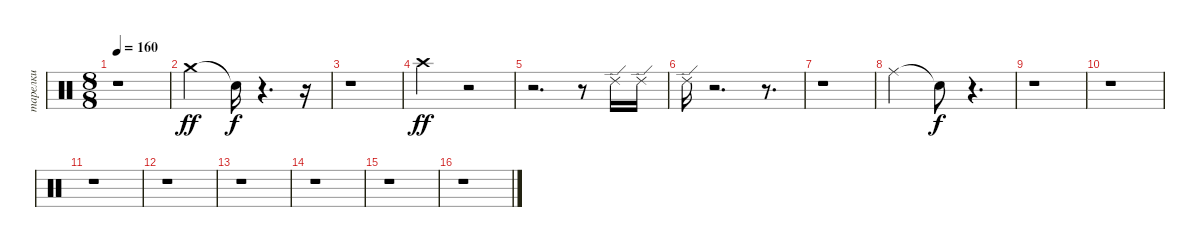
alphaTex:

\track ("тарелки" "тарелки") {instrument percussion}
\staff {score}
\articulation defaults
\ts (8 8)
\tempo 160
\clef neutral
\ks c
r.1{dy ff} |
"Crash medium (hit)".2 "Snare (hit)"{t}.16{dy f} r.4{d} r.16 |
r.1 |
"Crash high (hit)".2{dy ff} r.2 |
r.2{d} r.8 "Ride (edge) 2".16 "Ride (edge) 2".16 |
"Ride (edge) 2".16 r.2{d} r.8{d} |
r.1 |
"Ride (middle)".2 "Snare (hit)"{t}.8{dy f} r.4{d} |
r.1 |
r.1 |
r.1 |
r.1 |
r.1 |
r.1 |
r.1 |
r.1
